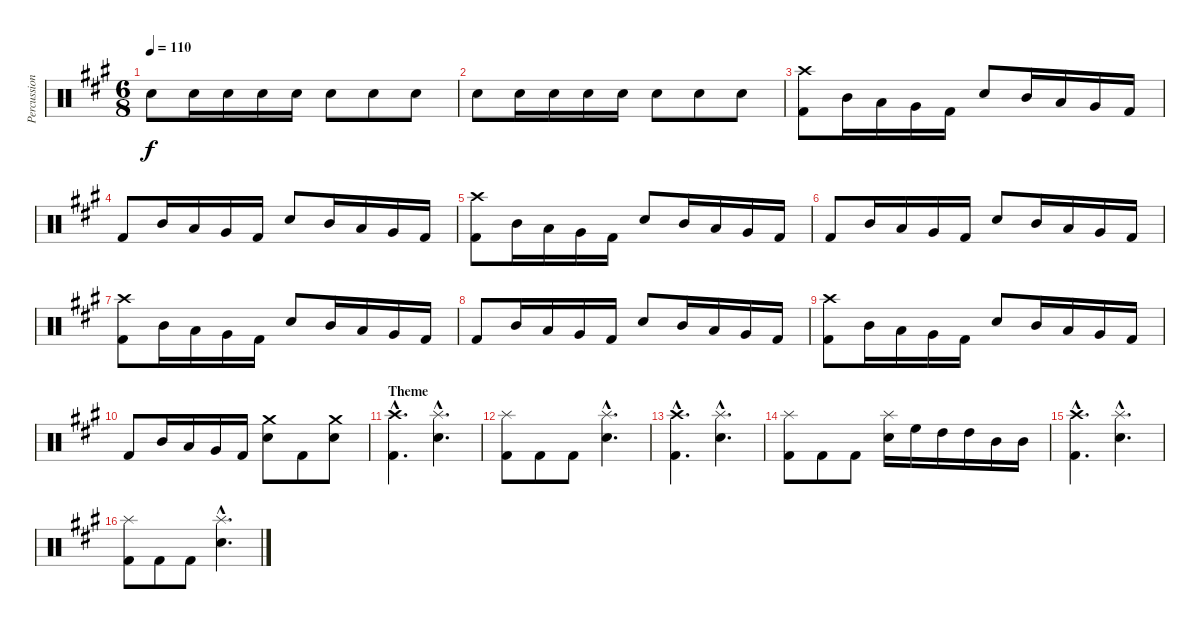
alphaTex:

\track ("Percussions" "Percussion") {instrument percussion}
\staff {score}
\articulation defaults
\ts (6 8)
\tempo 110
\clef neutral
\ks a "Electric Snare (hit)".8{dy f} "Electric Snare (hit)".16 "Electric Snare (hit)".16 "Electric Snare (hit)".16 "Electric Snare (hit)".16 "Electric Snare (hit)".8 "Electric Snare (hit)".8 "Electric Snare (hit)".8
|
"Electric Snare (hit)".8 "Electric Snare (hit)".16 "Electric Snare (hit)".16 "Electric Snare (hit)".16 "Electric Snare (hit)".16 "Electric Snare (hit)".8 "Electric Snare (hit)".8 "Electric Snare (hit)".8 |
("Crash high (hit)" "Kick (hit) 2").8 "Mid Tom (hit)".16 "Low Tom (hit)".16 "Very Low Tom (hit)".16 "Kick (hit) 2".16 "Electric Snare (hit)".8 "Mid Tom (hit)".16 "Low Tom (hit)".16 "Very Low Tom (hit)".16 "Kick (hit) 2".16 |
"Kick (hit) 2".8 "Mid Tom (hit)".16 "Low Tom (hit)".16 "Very Low Tom (hit)".16 "Kick (hit) 2".16 "Electric Snare (hit)".8 "Mid Tom (hit)".16 "Low Tom (hit)".16 "Very Low Tom (hit)".16 "Kick (hit) 2".16 |
("Crash high (hit)" "Kick (hit) 2").8 "Mid Tom (hit)".16 "Low Tom (hit)".16 "Very Low Tom (hit)".16 "Kick (hit) 2".16 "Electric Snare (hit)".8 "Mid Tom (hit)".16 "Low Tom (hit)".16 "Very Low Tom (hit)".16 "Kick (hit) 2".16 |
"Kick (hit) 2".8 "Mid Tom (hit)".16 "Low Tom (hit)".16 "Very Low Tom (hit)".16 "Kick (hit) 2".16 "Electric Snare (hit)".8 "Mid Tom (hit)".16 "Low Tom (hit)".16 "Very Low Tom (hit)".16 "Kick (hit) 2".16 |
("Crash high (hit)" "Kick (hit) 2").8 "Mid Tom (hit)".16 "Low Tom (hit)".16 "Very Low Tom (hit)".16 "Kick (hit) 2".16 "Electric Snare (hit)".8 "Mid Tom (hit)".16 "Low Tom (hit)".16 "Very Low Tom (hit)".16 "Kick (hit) 2".16 |
"Kick (hit) 2".8 "Mid Tom (hit)".16 "Low Tom (hit)".16 "Very Low Tom (hit)".16 "Kick (hit) 2".16 "Electric Snare (hit)".8 "Mid Tom (hit)".16 "Low Tom (hit)".16 "Very Low Tom (hit)".16 "Kick (hit) 2".16 |
("Crash high (hit)" "Kick (hit) 2").8 "Mid Tom (hit)".16 "Low Tom (hit)".16 "Very Low Tom (hit)".16 "Kick (hit) 2".16 "Electric Snare (hit)".8 "Mid Tom (hit)".16 "Low Tom (hit)".16 "Very Low Tom (hit)".16 "Kick (hit) 2".16 |
"Kick (hit) 2".8 "Mid Tom (hit)".16 "Low Tom (hit)".16 "Very Low Tom (hit)".16 "Kick (hit) 2".16 ("Crash medium (hit)" "Electric Snare (hit)").8 "Kick (hit) 2".8 ("Crash medium (hit)" "Electric Snare (hit)").8 |
\section ("" "Theme")
("Crash high (hit)"{hac} "Kick (hit) 2"{hac}).4{d} ("Splash (hit)"{hac} "Electric Snare (hit)"{hac}).4{d} |
("Splash (hit)" "Kick (hit) 2").8 "Kick (hit) 2".8 "Kick (hit) 2".8 ("Splash (hit)"{hac} "Electric Snare (hit)"{hac}).4{d} |
("Crash high (hit)"{hac} "Kick (hit) 2"{hac}).4{d} ("Splash (hit)"{hac} "Electric Snare (hit)"{hac}).4{d} |
("Splash (hit)" "Kick (hit) 2").8 "Kick (hit) 2".8 "Kick (hit) 2".8 ("Splash (hit)" "Electric Snare (hit)").16 "High Floor Tom (hit)".16 "High Tom (hit)".16 "High Tom (hit)".16 "Mid Tom (hit)".16 "Mid Tom (hit)".16 |
("Crash high (hit)"{hac} "Kick (hit) 2"{hac}).4{d} ("Splash (hit)"{hac} "Electric Snare (hit)"{hac}).4{d} |
("Splash (hit)" "Kick (hit) 2").8 "Kick (hit) 2".8 "Kick (hit) 2".8 ("Splash (hit)"{hac} "Electric Snare (hit)"{hac}).4{d}
